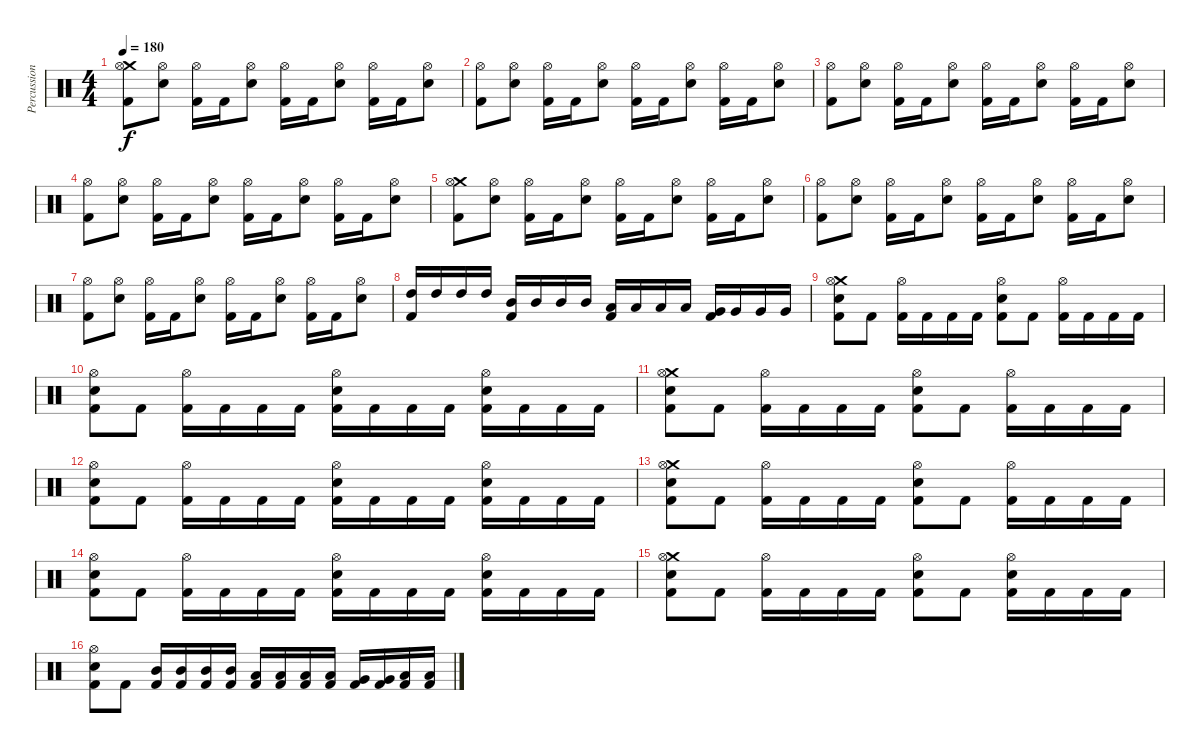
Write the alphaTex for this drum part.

\track ("Percussion" "Percussion") {instrument percussion}
\staff {score}
\articulation defaults
\ts (4 4)
\tempo 180
\clef neutral
\ks c
("Crash medium (hit)" "Hi-Hat (open)" "Kick (hit) 2").8{dy f} ("Hi-Hat (open)" "Electric Snare (hit)").8 ("Hi-Hat (open)" "Kick (hit) 2").16 "Kick (hit) 2".16 ("Hi-Hat (open)" "Electric Snare (hit)").8 ("Hi-Hat (open)" "Kick (hit) 2").16 "Kick (hit) 2".16 ("Hi-Hat (open)" "Electric Snare (hit)").8 ("Hi-Hat (open)" "Kick (hit) 2").16 "Kick (hit) 2".16 ("Hi-Hat (open)" "Electric Snare (hit)").8 |
("Hi-Hat (open)" "Kick (hit) 2").8 ("Hi-Hat (open)" "Electric Snare (hit)").8 ("Hi-Hat (open)" "Kick (hit) 2").16 "Kick (hit) 2".16 ("Hi-Hat (open)" "Electric Snare (hit)").8 ("Hi-Hat (open)" "Kick (hit) 2").16 "Kick (hit) 2".16 ("Hi-Hat (open)" "Electric Snare (hit)").8 ("Hi-Hat (open)" "Kick (hit) 2").16 "Kick (hit) 2".16 ("Hi-Hat (open)" "Electric Snare (hit)").8 |
("Hi-Hat (open)" "Kick (hit) 2").8 ("Hi-Hat (open)" "Electric Snare (hit)").8 ("Hi-Hat (open)" "Kick (hit) 2").16 "Kick (hit) 2".16 ("Hi-Hat (open)" "Electric Snare (hit)").8 ("Hi-Hat (open)" "Kick (hit) 2").16 "Kick (hit) 2".16 ("Hi-Hat (open)" "Electric Snare (hit)").8 ("Hi-Hat (open)" "Kick (hit) 2").16 "Kick (hit) 2".16 ("Hi-Hat (open)" "Electric Snare (hit)").8 |
("Hi-Hat (open)" "Kick (hit) 2").8 ("Hi-Hat (open)" "Electric Snare (hit)").8 ("Hi-Hat (open)" "Kick (hit) 2").16 "Kick (hit) 2".16 ("Hi-Hat (open)" "Electric Snare (hit)").8 ("Hi-Hat (open)" "Kick (hit) 2").16 "Kick (hit) 2".16 ("Hi-Hat (open)" "Electric Snare (hit)").8 ("Hi-Hat (open)" "Kick (hit) 2").16 "Kick (hit) 2".16 ("Hi-Hat (open)" "Electric Snare (hit)").8 |
("Crash medium (hit)" "Hi-Hat (open)" "Kick (hit) 2").8 ("Hi-Hat (open)" "Electric Snare (hit)").8 ("Hi-Hat (open)" "Kick (hit) 2").16 "Kick (hit) 2".16 ("Hi-Hat (open)" "Electric Snare (hit)").8 ("Hi-Hat (open)" "Kick (hit) 2").16 "Kick (hit) 2".16 ("Hi-Hat (open)" "Electric Snare (hit)").8 ("Hi-Hat (open)" "Kick (hit) 2").16 "Kick (hit) 2".16 ("Hi-Hat (open)" "Electric Snare (hit)").8 |
("Hi-Hat (open)" "Kick (hit) 2").8 ("Hi-Hat (open)" "Electric Snare (hit)").8 ("Hi-Hat (open)" "Kick (hit) 2").16 "Kick (hit) 2".16 ("Hi-Hat (open)" "Electric Snare (hit)").8 ("Hi-Hat (open)" "Kick (hit) 2").16 "Kick (hit) 2".16 ("Hi-Hat (open)" "Electric Snare (hit)").8 ("Hi-Hat (open)" "Kick (hit) 2").16 "Kick (hit) 2".16 ("Hi-Hat (open)" "Electric Snare (hit)").8 |
("Hi-Hat (open)" "Kick (hit) 2").8 ("Hi-Hat (open)" "Electric Snare (hit)").8 ("Hi-Hat (open)" "Kick (hit) 2").16 "Kick (hit) 2".16 ("Hi-Hat (open)" "Electric Snare (hit)").8 ("Hi-Hat (open)" "Kick (hit) 2").16 "Kick (hit) 2".16 ("Hi-Hat (open)" "Electric Snare (hit)").8 ("Hi-Hat (open)" "Kick (hit) 2").16 "Kick (hit) 2".16 ("Hi-Hat (open)" "Electric Snare (hit)").8 |
("High Tom (hit)" "Kick (hit) 2").16 "High Tom (hit)".16 "High Tom (hit)".16 "High Tom (hit)".16 ("Mid Tom (hit)" "Kick (hit) 2").16 "Mid Tom (hit)".16 "Mid Tom (hit)".16 "Mid Tom (hit)".16 ("Low Tom (hit)" "Kick (hit) 2").16 "Low Tom (hit)".16 "Low Tom (hit)".16 "Low Tom (hit)".16 ("Very Low Tom (hit)" "Kick (hit) 2").16 "Very Low Tom (hit)".16 "Very Low Tom (hit)".16 "Very Low Tom (hit)".16 |
("Crash medium (hit)" "Hi-Hat (open)" "Electric Snare (hit)" "Kick (hit) 2").8 "Kick (hit) 2".8 ("Hi-Hat (open)" "Kick (hit) 2").16 "Kick (hit) 2".16 "Kick (hit) 2".16 "Kick (hit) 2".16 ("Hi-Hat (open)" "Electric Snare (hit)" "Kick (hit) 2").8 "Kick (hit) 2".8 ("Hi-Hat (open)" "Kick (hit) 2").16 "Kick (hit) 2".16 "Kick (hit) 2".16 "Kick (hit) 2".16 |
("Hi-Hat (open)" "Electric Snare (hit)" "Kick (hit) 2").8 "Kick (hit) 2".8 ("Hi-Hat (open)" "Kick (hit) 2").16 "Kick (hit) 2".16 "Kick (hit) 2".16 "Kick (hit) 2".16 ("Hi-Hat (open)" "Electric Snare (hit)" "Kick (hit) 2").16 "Kick (hit) 2".16 "Kick (hit) 2".16 "Kick (hit) 2".16 ("Hi-Hat (open)" "Electric Snare (hit)" "Kick (hit) 2").16 "Kick (hit) 2".16 "Kick (hit) 2".16 "Kick (hit) 2".16 |
("Crash medium (hit)" "Hi-Hat (open)" "Electric Snare (hit)" "Kick (hit) 2").8 "Kick (hit) 2".8 ("Hi-Hat (open)" "Kick (hit) 2").16 "Kick (hit) 2".16 "Kick (hit) 2".16 "Kick (hit) 2".16 ("Hi-Hat (open)" "Electric Snare (hit)" "Kick (hit) 2").8 "Kick (hit) 2".8 ("Hi-Hat (open)" "Kick (hit) 2").16 "Kick (hit) 2".16 "Kick (hit) 2".16 "Kick (hit) 2".16 |
("Hi-Hat (open)" "Electric Snare (hit)" "Kick (hit) 2").8 "Kick (hit) 2".8 ("Hi-Hat (open)" "Kick (hit) 2").16 "Kick (hit) 2".16 "Kick (hit) 2".16 "Kick (hit) 2".16 ("Hi-Hat (open)" "Electric Snare (hit)" "Kick (hit) 2").16 "Kick (hit) 2".16 "Kick (hit) 2".16 "Kick (hit) 2".16 ("Hi-Hat (open)" "Electric Snare (hit)" "Kick (hit) 2").16 "Kick (hit) 2".16 "Kick (hit) 2".16 "Kick (hit) 2".16 |
("Crash medium (hit)" "Hi-Hat (open)" "Electric Snare (hit)" "Kick (hit) 2").8 "Kick (hit) 2".8 ("Hi-Hat (open)" "Kick (hit) 2").16 "Kick (hit) 2".16 "Kick (hit) 2".16 "Kick (hit) 2".16 ("Hi-Hat (open)" "Electric Snare (hit)" "Kick (hit) 2").8 "Kick (hit) 2".8 ("Hi-Hat (open)" "Kick (hit) 2").16 "Kick (hit) 2".16 "Kick (hit) 2".16 "Kick (hit) 2".16 |
("Hi-Hat (open)" "Electric Snare (hit)" "Kick (hit) 2").8 "Kick (hit) 2".8 ("Hi-Hat (open)" "Kick (hit) 2").16 "Kick (hit) 2".16 "Kick (hit) 2".16 "Kick (hit) 2".16 ("Hi-Hat (open)" "Electric Snare (hit)" "Kick (hit) 2").16 "Kick (hit) 2".16 "Kick (hit) 2".16 "Kick (hit) 2".16 ("Hi-Hat (open)" "Electric Snare (hit)" "Kick (hit) 2").16 "Kick (hit) 2".16 "Kick (hit) 2".16 "Kick (hit) 2".16 |
("Crash medium (hit)" "Hi-Hat (open)" "Electric Snare (hit)" "Kick (hit) 2").8 "Kick (hit) 2".8 ("Hi-Hat (open)" "Kick (hit) 2").16 "Kick (hit) 2".16 "Kick (hit) 2".16 "Kick (hit) 2".16 ("Hi-Hat (open)" "Electric Snare (hit)" "Kick (hit) 2").8 "Kick (hit) 2".8 ("Hi-Hat (open)" "Electric Snare (hit)" "Kick (hit) 2").16 "Kick (hit) 2".16 "Kick (hit) 2".16 "Kick (hit) 2".16 |
("Hi-Hat (open)" "Electric Snare (hit)" "Kick (hit) 2").8 "Kick (hit) 2".8 ("Mid Tom (hit)" "Kick (hit) 2").16 ("Mid Tom (hit)" "Kick (hit) 2").16 ("Mid Tom (hit)" "Kick (hit) 2").16 ("Mid Tom (hit)" "Kick (hit) 2").16 ("Low Tom (hit)" "Kick (hit) 2").16 ("Low Tom (hit)" "Kick (hit) 2").16 ("Low Tom (hit)" "Kick (hit) 2").16 ("Low Tom (hit)" "Kick (hit) 2").16 ("Very Low Tom (hit)" "Kick (hit) 2").16 ("Very Low Tom (hit)" "Kick (hit) 2").16 ("Low Floor Tom (hit)" "Kick (hit) 2").16 ("Low Floor Tom (hit)" "Kick (hit) 2").16
